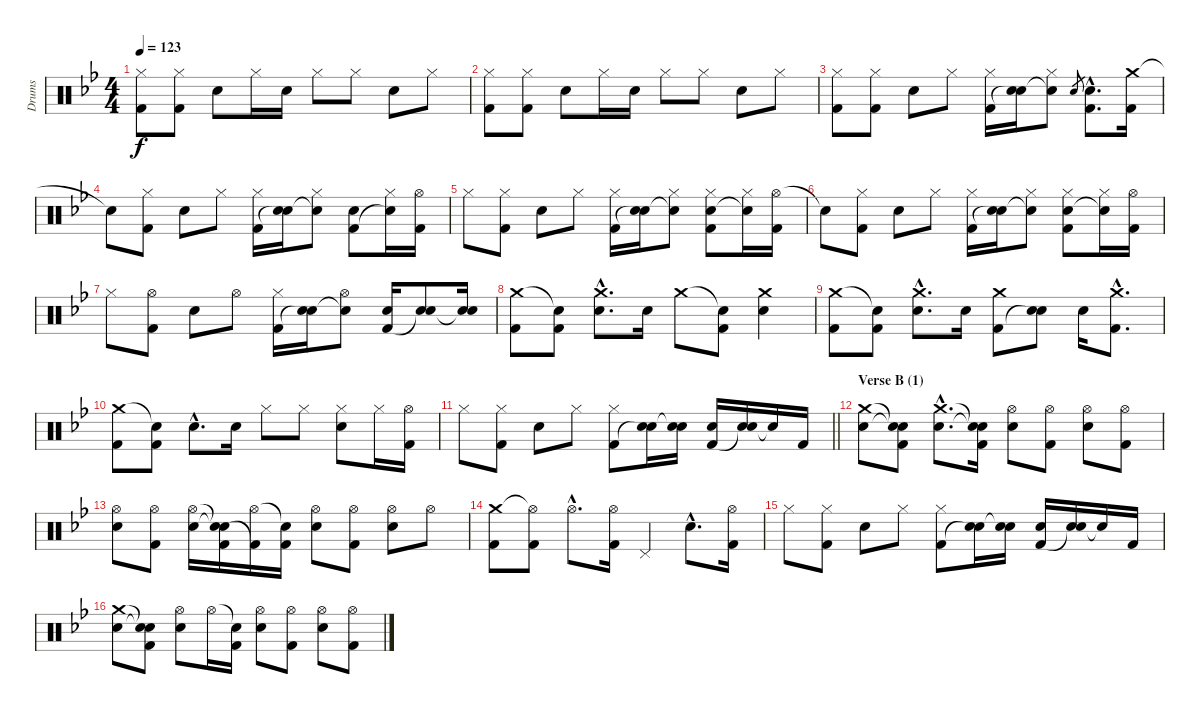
\track ("Drums" "Drums") {instrument percussion}
\staff {score}
\articulation defaults
\ts (4 4)
\tempo 123
\clef neutral
\ks gminor
("Hi-Hat (closed)" "Kick (hit) 2").8{dy f} ("Hi-Hat (closed)" "Kick (hit) 2").8 "Electric Snare (hit)".8 "Hi-Hat (closed)".16 "Electric Snare (hit)".16 "Hi-Hat (closed)".8 "Hi-Hat (closed)".8 "Electric Snare (hit)".8 "Hi-Hat (closed)".8 |
("Hi-Hat (closed)" "Kick (hit) 2").8 ("Hi-Hat (closed)" "Kick (hit) 2").8 "Electric Snare (hit)".8 "Hi-Hat (closed)".16 "Electric Snare (hit)".16 "Hi-Hat (closed)".8 "Hi-Hat (closed)".8 "Electric Snare (hit)".8 "Hi-Hat (closed)".8 |
("Hi-Hat (closed)" "Kick (hit) 2").8 ("Hi-Hat (closed)" "Kick (hit) 2").8 "Electric Snare (hit)".8 "Hi-Hat (closed)".8 ("Hi-Hat (closed)" "Kick (hit) 2").16 ("Electric Snare (hit)" "Snare (hit)"{t}).16 ("Hi-Hat (closed)" "Snare (hit)"{t}).8 "Electric Snare (hit)".8{gr} ("Electric Snare (hit)"{hac} "Kick (hit) 2"{hac}).8{d} ("Crash medium (hit)" "Kick (hit) 2").16 |
"Snare (hit)"{t}.8 ("Hi-Hat (closed)" "Kick (hit) 2").8 "Electric Snare (hit)".8 "Hi-Hat (closed)".8 ("Hi-Hat (closed)" "Kick (hit) 2").16 ("Electric Snare (hit)" "Snare (hit)"{t}).16 ("Hi-Hat (closed)" "Snare (hit)"{t}).8 ("Electric Snare (hit)" "Kick (hit) 2").8 ("Hi-Hat (closed)" "Snare (hit)"{t}).16 ("Hi-Hat (open)" "Kick (hit) 2").16 |
"Hi-Hat (closed)".8 ("Hi-Hat (closed)" "Kick (hit) 2").8 "Electric Snare (hit)".8 "Hi-Hat (closed)".8 ("Hi-Hat (closed)" "Kick (hit) 2").16 ("Electric Snare (hit)" "Snare (hit)"{t}).16 ("Hi-Hat (closed)" "Snare (hit)"{t}).8 ("Hi-Hat (closed)" "Electric Snare (hit)" "Kick (hit) 2").8 ("Hi-Hat (closed)" "Snare (hit)"{t}).16 ("Hi-Hat (open)" "Kick (hit) 2").16 |
"Snare (hit)"{t}.8 ("Hi-Hat (closed)" "Kick (hit) 2").8 "Electric Snare (hit)".8 "Hi-Hat (closed)".8 ("Hi-Hat (closed)" "Kick (hit) 2").16 ("Electric Snare (hit)" "Snare (hit)"{t}).16 ("Hi-Hat (closed)" "Snare (hit)"{t}).8 ("Hi-Hat (closed)" "Electric Snare (hit)" "Kick (hit) 2").8 ("Hi-Hat (closed)" "Snare (hit)"{t}).16 ("Hi-Hat (open)" "Kick (hit) 2").16 |
"Hi-Hat (closed)".8 ("Hi-Hat (open)" "Kick (hit) 2").8 "Electric Snare (hit)".8 "Hi-Hat (open)".8 ("Hi-Hat (closed)" "Kick (hit) 2").16 ("Electric Snare (hit)" "Snare (hit)"{t}).16 ("Hi-Hat (open)" "Snare (hit)"{t}).8 ("Electric Snare (hit)" "Kick (hit) 2").16 ("Electric Snare (hit)" "Snare (hit)"{t}).8 ("Electric Snare (hit)" "Snare (hit)"{t}).16 |
("Crash medium (hit)" "Kick (hit) 2").8 ("Snare (hit)"{t} "Kick (hit) 2").8 ("Crash medium (hit)"{hac} "Electric Snare (hit)"{hac}).8{d} "Electric Snare (hit)".16 "Crash medium (hit)".8 ("Snare (hit)"{t} "Kick (hit) 2").8 ("Crash medium (hit)" "Electric Snare (hit)").4 |
("Crash medium (hit)" "Kick (hit) 2").8 ("Snare (hit)"{t} "Kick (hit) 2").8 ("Crash medium (hit)"{hac} "Electric Snare (hit)"{hac}).8{d} "Electric Snare (hit)".16 ("Crash medium (hit)" "Kick (hit) 2").8 ("Electric Snare (hit)" "Snare (hit)"{t}).8 "Electric Snare (hit)".16 ("Crash medium (hit)"{hac} "Kick (hit) 2"{hac}).8{d} |
("Crash medium (hit)" "Kick (hit) 2").8 ("Snare (hit)"{t} "Kick (hit) 2").8 "Electric Snare (hit)"{hac}.8{d} "Electric Snare (hit)".16 "Hi-Hat (closed)".8 "Hi-Hat (closed)".8 ("Hi-Hat (closed)" "Electric Snare (hit)").8 "Hi-Hat (closed)".16 ("Hi-Hat (open)" "Kick (hit) 2").16 |
\barLineRight lightlight "Hi-Hat (closed)".8
("Hi-Hat (closed)" "Kick (hit) 2").8 "Electric Snare (hit)".8 "Hi-Hat (closed)".8 ("Hi-Hat (closed)" "Kick (hit) 2").8 ("Electric Snare (hit)" "Snare (hit)"{t}).16 ("Electric Snare (hit)" "Snare (hit)"{t}).16 ("Electric Snare (hit)" "Kick (hit) 2").16 ("Electric Snare (hit)" "Snare (hit)"{t}).16 "Snare (hit)"{t}.16 "Kick (hit) 2".16 |
\section ("" "Verse B (1)")
("Crash medium (hit)" "Electric Snare (hit)").8 ("Snare (hit)"{t} "Snare (hit)"{t} "Kick (hit) 2").8 ("Crash medium (hit)"{hac} "Electric Snare (hit)"{hac}).8{d} ("Snare (hit)"{t} "Snare (hit)"{t} "Kick (hit) 2").16 ("Hi-Hat (open)" "Electric Snare (hit)").8 ("Hi-Hat (open)" "Kick (hit) 2").8 ("Hi-Hat (open)" "Electric Snare (hit)").8 ("Hi-Hat (open)" "Kick (hit) 2").8 |
("Hi-Hat (open)" "Electric Snare (hit)").8 ("Hi-Hat (open)" "Kick (hit) 2").8 ("Hi-Hat (open)" "Electric Snare (hit)").16 ("Snare (hit)"{t} "Snare (hit)"{t} "Kick (hit) 2").16 ("Hi-Hat (open)" "Kick (hit) 2"{t}).16 ("Snare (hit)"{t} "Kick (hit) 2").16 ("Hi-Hat (open)" "Electric Snare (hit)").8 ("Hi-Hat (open)" "Kick (hit) 2").8 ("Hi-Hat (open)" "Electric Snare (hit)").8 "Hi-Hat (open)".8 |
("Crash medium (hit)" "Kick (hit) 2").8 ("Hi-Hat (open)"{t} "Kick (hit) 2").8 "Hi-Hat (open)"{hac}.8{d} ("Hi-Hat (open)" "Kick (hit) 2").16 "Pedal Hi-Hat (hit)".4 "Electric Snare (hit)"{hac}.8{d} ("Hi-Hat (open)" "Kick (hit) 2").16 |
"Hi-Hat (closed)".8 ("Hi-Hat (closed)" "Kick (hit) 2").8 "Electric Snare (hit)".8 "Hi-Hat (closed)".8 ("Hi-Hat (closed)" "Kick (hit) 2").8 ("Electric Snare (hit)" "Snare (hit)"{t}).16 ("Electric Snare (hit)" "Snare (hit)"{t}).16 ("Electric Snare (hit)" "Kick (hit) 2").16 ("Electric Snare (hit)" "Snare (hit)"{t}).16 "Snare (hit)"{t}.16 "Kick (hit) 2".16 |
("Crash medium (hit)" "Electric Snare (hit)").8 ("Snare (hit)"{t} "Snare (hit)"{t} "Kick (hit) 2").8 ("Hi-Hat (open)" "Electric Snare (hit)").8 "Hi-Hat (open)".16 ("Snare (hit)"{t} "Kick (hit) 2").16 ("Hi-Hat (open)" "Electric Snare (hit)").8 ("Hi-Hat (open)" "Kick (hit) 2").8 ("Hi-Hat (open)" "Electric Snare (hit)").8 ("Hi-Hat (open)" "Kick (hit) 2").8
